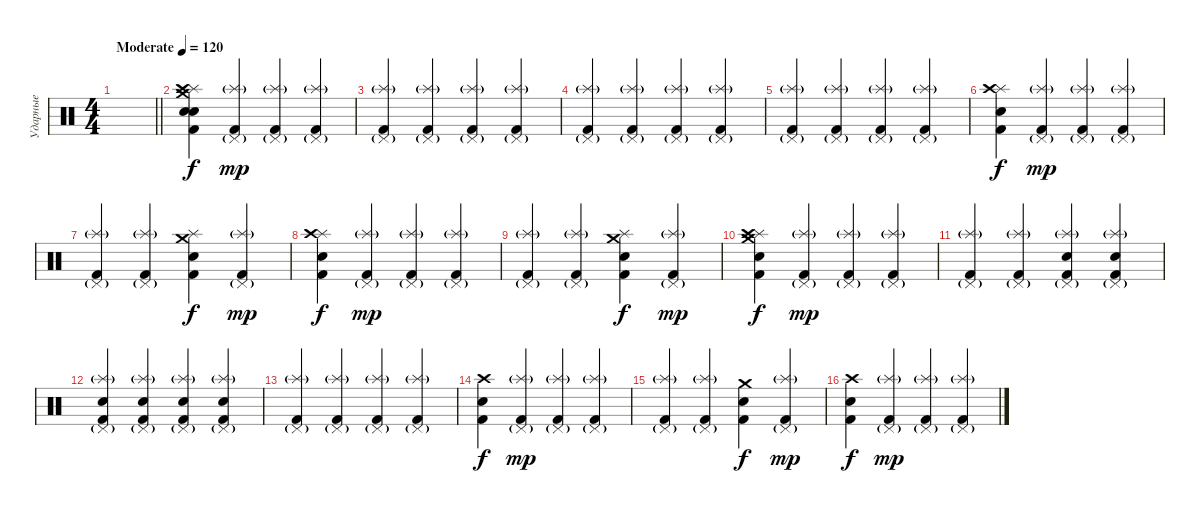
\track ("Ударные" "Ударные") {instrument percussion bank 2}
\staff {score}
\articulation defaults
\ts (4 4)
\tempo (120 "Moderate")
\clef neutral
\barLineRight lightlight
\ks c
|
("Kick (hit) 2" "Snare (hit)" "Splash (hit)" "Crash high (hit)" "Crash medium (hit)" "Snare (hit)").4 ("Kick (hit) 2" "Pedal Hi-Hat (hit)"{g} "Splash (hit)"{g}).4{dy mp} ("Kick (hit) 2" "Pedal Hi-Hat (hit)"{g} "Splash (hit)"{g}).4 ("Kick (hit) 2" "Pedal Hi-Hat (hit)"{g} "Splash (hit)"{g}).4 |
("Kick (hit) 2" "Pedal Hi-Hat (hit)"{g} "Splash (hit)"{g}).4 ("Kick (hit) 2" "Pedal Hi-Hat (hit)"{g} "Splash (hit)"{g}).4 ("Kick (hit) 2" "Pedal Hi-Hat (hit)"{g} "Splash (hit)"{g}).4 ("Kick (hit) 2" "Pedal Hi-Hat (hit)"{g} "Splash (hit)"{g}).4 |
("Kick (hit) 2" "Pedal Hi-Hat (hit)"{g} "Splash (hit)"{g}).4 ("Kick (hit) 2" "Pedal Hi-Hat (hit)"{g} "Splash (hit)"{g}).4 ("Kick (hit) 2" "Pedal Hi-Hat (hit)"{g} "Splash (hit)"{g}).4 ("Kick (hit) 2" "Pedal Hi-Hat (hit)"{g} "Splash (hit)"{g}).4 |
("Kick (hit) 2" "Pedal Hi-Hat (hit)"{g} "Splash (hit)"{g}).4 ("Kick (hit) 2" "Pedal Hi-Hat (hit)"{g} "Splash (hit)"{g}).4 ("Kick (hit) 2" "Pedal Hi-Hat (hit)"{g} "Splash (hit)"{g}).4 ("Kick (hit) 2" "Pedal Hi-Hat (hit)"{g} "Splash (hit)"{g}).4 |
("Kick (hit) 2" "Snare (hit) 2" "Splash (hit)" "Crash high (hit)").4{dy f} ("Kick (hit) 2" "Pedal Hi-Hat (hit)"{g} "Splash (hit)"{g}).4{dy mp} ("Kick (hit) 2" "Pedal Hi-Hat (hit)"{g} "Splash (hit)"{g}).4 ("Kick (hit) 2" "Pedal Hi-Hat (hit)"{g} "Splash (hit)"{g}).4 |
("Kick (hit) 2" "Pedal Hi-Hat (hit)"{g} "Splash (hit)"{g}).4 ("Kick (hit) 2" "Pedal Hi-Hat (hit)"{g} "Splash (hit)"{g}).4 ("Kick (hit) 2" "Snare (hit) 2" "Splash (hit)" "Crash medium (hit)").4{dy f} ("Kick (hit) 2" "Pedal Hi-Hat (hit)"{g} "Splash (hit)"{g}).4{dy mp} |
("Kick (hit) 2" "Snare (hit) 2" "Splash (hit)" "Crash high (hit)").4{dy f} ("Kick (hit) 2" "Pedal Hi-Hat (hit)"{g} "Splash (hit)"{g}).4{dy mp} ("Kick (hit) 2" "Pedal Hi-Hat (hit)"{g} "Splash (hit)"{g}).4 ("Kick (hit) 2" "Pedal Hi-Hat (hit)"{g} "Splash (hit)"{g}).4 |
("Kick (hit) 2" "Pedal Hi-Hat (hit)"{g} "Splash (hit)"{g}).4 ("Kick (hit) 2" "Pedal Hi-Hat (hit)"{g} "Splash (hit)"{g}).4 ("Kick (hit) 2" "Snare (hit) 2" "Splash (hit)" "Crash medium (hit)").4{dy f} ("Kick (hit) 2" "Pedal Hi-Hat (hit)"{g} "Splash (hit)"{g}).4{dy mp} |
("Kick (hit) 2" "Snare (hit) 2" "Splash (hit)" "Crash high (hit)" "Crash medium (hit)").4{dy f} ("Kick (hit) 2" "Pedal Hi-Hat (hit)"{g} "Splash (hit)"{g}).4{dy mp} ("Kick (hit) 2" "Pedal Hi-Hat (hit)"{g} "Splash (hit)"{g}).4 ("Kick (hit) 2" "Pedal Hi-Hat (hit)"{g} "Splash (hit)"{g}).4 |
("Kick (hit) 2" "Pedal Hi-Hat (hit)"{g} "Splash (hit)"{g}).4 ("Kick (hit) 2" "Pedal Hi-Hat (hit)"{g} "Splash (hit)"{g}).4 ("Kick (hit) 2" "Pedal Hi-Hat (hit)"{g} "Splash (hit)"{g} "Snare (hit)").4 ("Kick (hit) 2" "Pedal Hi-Hat (hit)"{g} "Splash (hit)"{g} "Snare (hit)").4 |
("Kick (hit) 2" "Pedal Hi-Hat (hit)"{g} "Splash (hit)"{g} "Snare (hit)").4 ("Kick (hit) 2" "Pedal Hi-Hat (hit)"{g} "Splash (hit)"{g} "Snare (hit)").4 ("Kick (hit) 2" "Pedal Hi-Hat (hit)"{g} "Splash (hit)"{g} "Snare (hit)").4 ("Kick (hit) 2" "Pedal Hi-Hat (hit)"{g} "Splash (hit)"{g} "Snare (hit)").4 |
("Kick (hit) 2" "Pedal Hi-Hat (hit)"{g} "Splash (hit)"{g}).4 ("Kick (hit) 2" "Pedal Hi-Hat (hit)"{g} "Splash (hit)"{g}).4 ("Kick (hit) 2" "Pedal Hi-Hat (hit)"{g} "Splash (hit)"{g}).4 ("Kick (hit) 2" "Pedal Hi-Hat (hit)"{g} "Splash (hit)"{g}).4 |
("Kick (hit) 2" "Snare (hit) 2" "Crash high (hit)").4{dy f} ("Kick (hit) 2" "Pedal Hi-Hat (hit)"{g} "Splash (hit)"{g}).4{dy mp} ("Kick (hit) 2" "Pedal Hi-Hat (hit)"{g} "Splash (hit)"{g}).4 ("Kick (hit) 2" "Pedal Hi-Hat (hit)"{g} "Splash (hit)"{g}).4 |
("Kick (hit) 2" "Pedal Hi-Hat (hit)"{g} "Splash (hit)"{g}).4 ("Kick (hit) 2" "Pedal Hi-Hat (hit)"{g} "Splash (hit)"{g}).4 ("Kick (hit) 2" "Snare (hit) 2" "Crash medium (hit)").4{dy f} ("Kick (hit) 2" "Pedal Hi-Hat (hit)"{g} "Splash (hit)"{g}).4{dy mp} |
("Kick (hit) 2" "Snare (hit) 2" "Crash high (hit)").4{dy f} ("Kick (hit) 2" "Pedal Hi-Hat (hit)"{g} "Splash (hit)"{g}).4{dy mp} ("Kick (hit) 2" "Pedal Hi-Hat (hit)"{g} "Splash (hit)"{g}).4 ("Kick (hit) 2" "Pedal Hi-Hat (hit)"{g} "Splash (hit)"{g}).4
